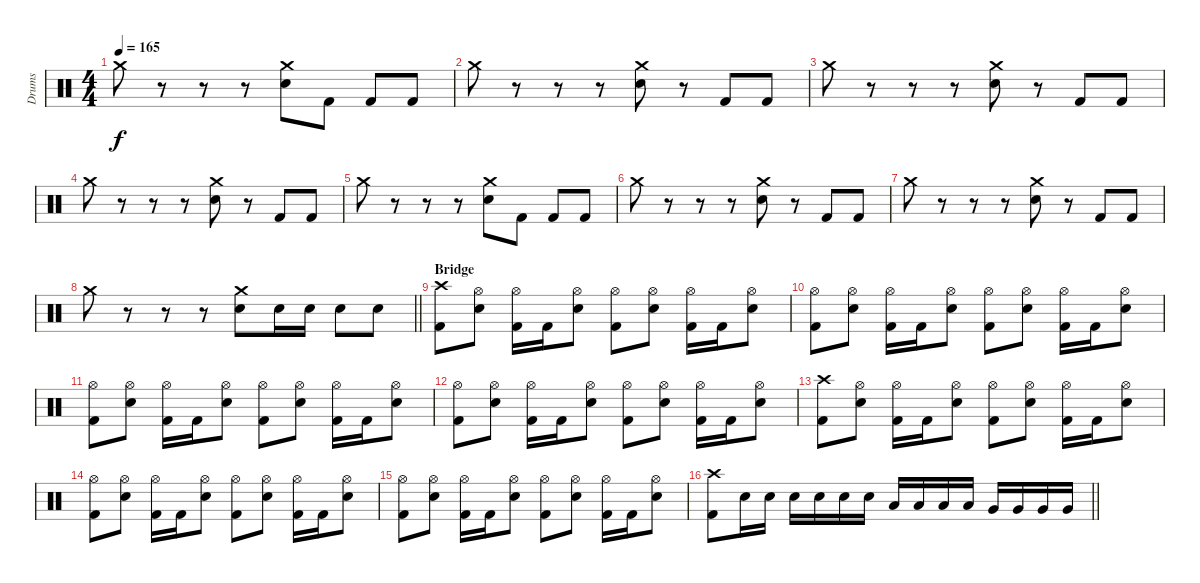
\track ("Drums" "Drums") {instrument percussion}
\staff {score}
\articulation defaults
\ts (4 4)
\tempo 165
\clef neutral
\ks c "Crash medium (hit)".8{dy f}
r.8 r.8 r.8 ("Crash medium (hit)" "Electric Snare (hit)").8 "Kick (hit) 2".8 "Kick (hit) 2".8 "Kick (hit) 2".8 |
"Crash medium (hit)".8 r.8 r.8 r.8 ("Crash medium (hit)" "Electric Snare (hit)").8 r.8 "Kick (hit) 2".8 "Kick (hit) 2".8 |
"Crash medium (hit)".8 r.8 r.8 r.8 ("Crash medium (hit)" "Electric Snare (hit)").8 r.8 "Kick (hit) 2".8 "Kick (hit) 2".8 |
"Crash medium (hit)".8 r.8 r.8 r.8 ("Crash medium (hit)" "Electric Snare (hit)").8 r.8 "Kick (hit) 2".8 "Kick (hit) 2".8 |
"Crash medium (hit)".8 r.8 r.8 r.8 ("Crash medium (hit)" "Electric Snare (hit)").8 "Kick (hit) 2".8 "Kick (hit) 2".8 "Kick (hit) 2".8 |
"Crash medium (hit)".8 r.8 r.8 r.8 ("Crash medium (hit)" "Electric Snare (hit)").8 r.8 "Kick (hit) 2".8 "Kick (hit) 2".8 |
"Crash medium (hit)".8 r.8 r.8 r.8 ("Crash medium (hit)" "Electric Snare (hit)").8 r.8 "Kick (hit) 2".8 "Kick (hit) 2".8 |
\barLineRight lightlight "Crash medium (hit)".8
r.8 r.8 r.8 ("Crash medium (hit)" "Electric Snare (hit)").8 "Electric Snare (hit)".16 "Electric Snare (hit)".16 "Electric Snare (hit)".8 "Electric Snare (hit)".8 |
\section ("" "Bridge")
("Crash high (hit)" "Kick (hit) 2").8 ("Hi-Hat (open)" "Electric Snare (hit)").8 ("Hi-Hat (open)" "Kick (hit) 2").16 "Kick (hit) 2".16 ("Hi-Hat (open)" "Electric Snare (hit)").8 ("Hi-Hat (open)" "Kick (hit) 2").8 ("Hi-Hat (open)" "Electric Snare (hit)").8 ("Hi-Hat (open)" "Kick (hit) 2").16 "Kick (hit) 2".16 ("Hi-Hat (open)" "Electric Snare (hit)").8 |
("Hi-Hat (open)" "Kick (hit) 2").8 ("Hi-Hat (open)" "Electric Snare (hit)").8 ("Hi-Hat (open)" "Kick (hit) 2").16 "Kick (hit) 2".16 ("Hi-Hat (open)" "Electric Snare (hit)").8 ("Hi-Hat (open)" "Kick (hit) 2").8 ("Hi-Hat (open)" "Electric Snare (hit)").8 ("Hi-Hat (open)" "Kick (hit) 2").16 "Kick (hit) 2".16 ("Hi-Hat (open)" "Electric Snare (hit)").8 |
("Hi-Hat (open)" "Kick (hit) 2").8 ("Hi-Hat (open)" "Electric Snare (hit)").8 ("Hi-Hat (open)" "Kick (hit) 2").16 "Kick (hit) 2".16 ("Hi-Hat (open)" "Electric Snare (hit)").8 ("Hi-Hat (open)" "Kick (hit) 2").8 ("Hi-Hat (open)" "Electric Snare (hit)").8 ("Hi-Hat (open)" "Kick (hit) 2").16 "Kick (hit) 2".16 ("Hi-Hat (open)" "Electric Snare (hit)").8 |
("Hi-Hat (open)" "Kick (hit) 2").8 ("Hi-Hat (open)" "Electric Snare (hit)").8 ("Hi-Hat (open)" "Kick (hit) 2").16 "Kick (hit) 2".16 ("Hi-Hat (open)" "Electric Snare (hit)").8 ("Hi-Hat (open)" "Kick (hit) 2").8 ("Hi-Hat (open)" "Electric Snare (hit)").8 ("Hi-Hat (open)" "Kick (hit) 2").16 "Kick (hit) 2".16 ("Hi-Hat (open)" "Electric Snare (hit)").8 |
("Crash high (hit)" "Kick (hit) 2").8 ("Hi-Hat (open)" "Electric Snare (hit)").8 ("Hi-Hat (open)" "Kick (hit) 2").16 "Kick (hit) 2".16 ("Hi-Hat (open)" "Electric Snare (hit)").8 ("Hi-Hat (open)" "Kick (hit) 2").8 ("Hi-Hat (open)" "Electric Snare (hit)").8 ("Hi-Hat (open)" "Kick (hit) 2").16 "Kick (hit) 2".16 ("Hi-Hat (open)" "Electric Snare (hit)").8 |
("Hi-Hat (open)" "Kick (hit) 2").8 ("Hi-Hat (open)" "Electric Snare (hit)").8 ("Hi-Hat (open)" "Kick (hit) 2").16 "Kick (hit) 2".16 ("Hi-Hat (open)" "Electric Snare (hit)").8 ("Hi-Hat (open)" "Kick (hit) 2").8 ("Hi-Hat (open)" "Electric Snare (hit)").8 ("Hi-Hat (open)" "Kick (hit) 2").16 "Kick (hit) 2".16 ("Hi-Hat (open)" "Electric Snare (hit)").8 |
("Hi-Hat (open)" "Kick (hit) 2").8 ("Hi-Hat (open)" "Electric Snare (hit)").8 ("Hi-Hat (open)" "Kick (hit) 2").16 "Kick (hit) 2".16 ("Hi-Hat (open)" "Electric Snare (hit)").8 ("Hi-Hat (open)" "Kick (hit) 2").8 ("Hi-Hat (open)" "Electric Snare (hit)").8 ("Hi-Hat (open)" "Kick (hit) 2").16 "Kick (hit) 2".16 ("Hi-Hat (open)" "Electric Snare (hit)").8 |
\barLineRight lightlight
("Crash high (hit)" "Kick (hit) 2").8 "Electric Snare (hit)".16 "Electric Snare (hit)".16 "Electric Snare (hit)".16 "Electric Snare (hit)".16 "Electric Snare (hit)".16 "Electric Snare (hit)".16 "Low Tom (hit)".16 "Low Tom (hit)".16 "Low Tom (hit)".16 "Low Tom (hit)".16 "Very Low Tom (hit)".16 "Very Low Tom (hit)".16 "Very Low Tom (hit)".16 "Very Low Tom (hit)".16
